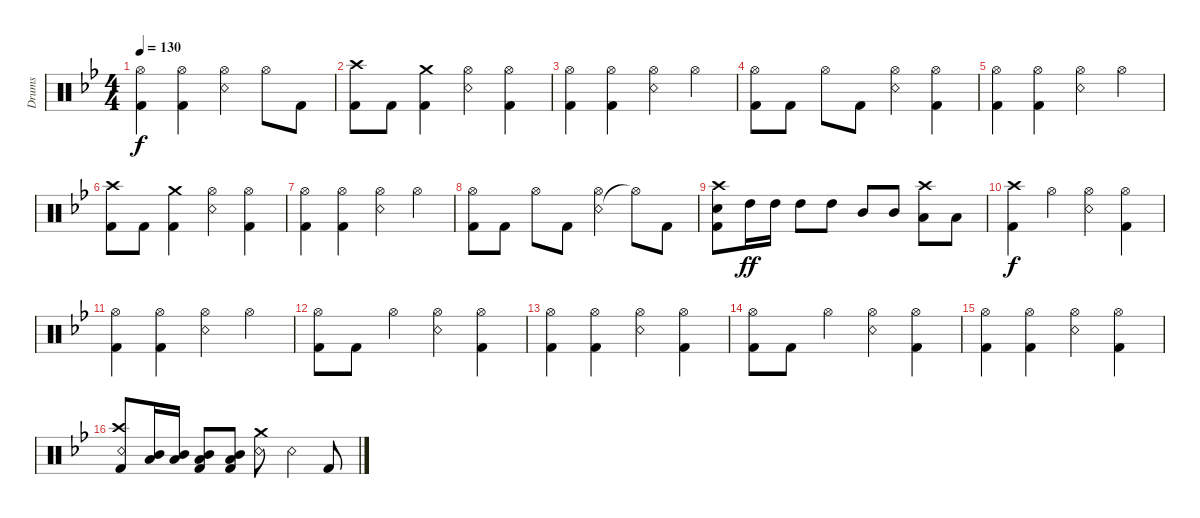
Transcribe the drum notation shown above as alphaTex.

\bracketExtendMode groupsimilarinstruments
\otherSystemsTrackNameOrientation horizontal
\track ("Schlagzeug" "Drums") {instrument percussion}
\staff {score}
\articulation defaults
\ts (4 4)
\tempo 130
\clef neutral
\ks bb
("Kick (hit) 2"{acc forcenatural} "Hi-Hat (open)"{acc forcenatural}).4{dy f beam Down} ("Kick (hit) 2"{acc forcenatural} "Hi-Hat (open)"{acc forcenatural}).4{beam Down} ("Snare (rim shot)"{acc forcenatural} "Hi-Hat (open)"{acc forcenatural}).4{beam Down} "Hi-Hat (open)"{acc forcenatural}.8{beam Down} "Kick (hit) 2"{acc forcenatural}.8{beam Down} |
("Kick (hit) 2"{acc forcenatural} "Crash high (hit)"{acc forcenatural}).8{beam Down} "Kick (hit) 2"{acc forcenatural}.8{beam Down} ("Kick (hit) 2"{acc forcenatural} "Crash medium (hit)"{acc forcenatural}).4{beam Down} ("Snare (rim shot)"{acc forcenatural} "Hi-Hat (open)"{acc forcenatural}).4{beam Down} ("Kick (hit) 2"{acc forcenatural} "Hi-Hat (open)"{acc forcenatural}).4{beam Down} |
("Kick (hit) 2"{acc forcenatural} "Hi-Hat (open)"{acc forcenatural}).4{beam Down} ("Kick (hit) 2"{acc forcenatural} "Hi-Hat (open)"{acc forcenatural}).4{beam Down} ("Snare (rim shot)"{acc forcenatural} "Hi-Hat (open)"{acc forcenatural}).4{beam Down} "Hi-Hat (open)"{acc forcenatural}.4{beam Down} |
("Kick (hit) 2"{acc forcenatural} "Hi-Hat (open)"{acc forcenatural}).8{beam Down} "Kick (hit) 2"{acc forcenatural}.8{beam Down} "Hi-Hat (open)"{acc forcenatural}.8{beam Down} "Kick (hit) 2"{acc forcenatural}.8{beam Down} ("Snare (rim shot)"{acc forcenatural} "Hi-Hat (open)"{acc forcenatural}).4{beam Down} ("Kick (hit) 2"{acc forcenatural} "Hi-Hat (open)"{acc forcenatural}).4{beam Down} |
("Kick (hit) 2"{acc forcenatural} "Hi-Hat (open)"{acc forcenatural}).4{beam Down} ("Kick (hit) 2"{acc forcenatural} "Hi-Hat (open)"{acc forcenatural}).4{beam Down} ("Snare (rim shot)"{acc forcenatural} "Hi-Hat (open)"{acc forcenatural}).4{beam Down} "Hi-Hat (open)"{acc forcenatural}.4{beam Down} |
("Kick (hit) 2"{acc forcenatural} "Crash high (hit)"{acc forcenatural}).8{beam Down} "Kick (hit) 2"{acc forcenatural}.8{beam Down} ("Kick (hit) 2"{acc forcenatural} "Crash medium (hit)"{acc forcenatural}).4{beam Down} ("Snare (rim shot)"{acc forcenatural} "Hi-Hat (open)"{acc forcenatural}).4{beam Down} ("Kick (hit) 2"{acc forcenatural} "Hi-Hat (open)"{acc forcenatural}).4{beam Down} |
("Kick (hit) 2"{acc forcenatural} "Hi-Hat (open)"{acc forcenatural}).4{beam Down} ("Kick (hit) 2"{acc forcenatural} "Hi-Hat (open)"{acc forcenatural}).4{beam Down} ("Snare (rim shot)"{acc forcenatural} "Hi-Hat (open)"{acc forcenatural}).4{beam Down} "Hi-Hat (open)"{acc forcenatural}.4{beam Down} |
("Kick (hit) 2"{acc forcenatural} "Hi-Hat (open)"{acc forcenatural}).8{beam Down} "Kick (hit) 2"{acc forcenatural}.8{beam Down} "Hi-Hat (open)"{acc forcenatural}.8{beam Down} "Kick (hit) 2"{acc forcenatural}.8{beam Down} ("Snare (rim shot)"{acc forcenatural} "Hi-Hat (open)"{acc forcenatural}).4{beam Down} "Hi-Hat (open)"{t acc forcenatural}.8{beam Down} "Kick (hit) 2"{acc forcenatural}.8{beam Down} |
("Kick (hit) 2"{acc forcenatural} "Snare (hit) 2"{acc forcenatural} "Crash high (hit)"{acc forcenatural}).8{beam Down} "High Tom (hit)"{acc forcenatural}.16{dy ff beam Down} "High Tom (hit)"{acc forcenatural}.16{beam Down} "High Tom (hit)"{acc forcenatural}.8{beam Down} "High Tom (hit)"{acc forcenatural}.8{beam Down} "Mid Tom (hit)"{acc forcenatural}.8{beam Up} "Mid Tom (hit)"{acc forcenatural}.8{beam Up} ("Low Tom (hit)"{acc forcenatural} "Crash high (hit)"{acc forcenatural}).8{beam Down} "Low Tom (hit)"{acc forcenatural}.8{beam Down} |
("Crash high (hit)"{acc forcenatural} "Kick (hit) 2"{acc forcenatural}).4{dy f beam Down} "Hi-Hat (open)"{acc forcenatural}.4{beam Down} ("Hi-Hat (open)"{acc forcenatural} "Snare (rim shot)"{acc forcenatural}).4{beam Down} ("Hi-Hat (open)"{acc forcenatural} "Kick (hit) 2"{acc forcenatural}).4{beam Down} |
("Hi-Hat (open)"{acc forcenatural} "Kick (hit) 2"{acc forcenatural}).4{beam Down} ("Hi-Hat (open)"{acc forcenatural} "Kick (hit) 2"{acc forcenatural}).4{beam Down} ("Hi-Hat (open)"{acc forcenatural} "Snare (rim shot)"{acc forcenatural}).4{beam Down} "Hi-Hat (open)"{acc forcenatural}.4{beam Down} |
("Kick (hit) 2"{acc forcenatural} "Hi-Hat (open)"{acc forcenatural}).8{beam Down} "Kick (hit) 2"{acc forcenatural}.8{beam Down} "Hi-Hat (open)"{acc forcenatural}.4{beam Down} ("Snare (rim shot)"{acc forcenatural} "Hi-Hat (open)"{acc forcenatural}).4{beam Down} ("Hi-Hat (open)"{acc forcenatural} "Kick (hit) 2"{acc forcenatural}).4{beam Down} |
("Kick (hit) 2"{acc forcenatural} "Hi-Hat (open)"{acc forcenatural}).4{beam Down} ("Kick (hit) 2"{acc forcenatural} "Hi-Hat (open)"{acc forcenatural}).4{beam Down} ("Snare (rim shot)"{acc forcenatural} "Hi-Hat (open)"{acc forcenatural}).4{beam Down} ("Kick (hit) 2"{acc forcenatural} "Hi-Hat (open)"{acc forcenatural}).4{beam Down} |
("Kick (hit) 2"{acc forcenatural} "Hi-Hat (open)"{acc forcenatural}).8{beam Down} "Kick (hit) 2"{acc forcenatural}.8{beam Down} "Hi-Hat (open)"{acc forcenatural}.4{beam Down} ("Snare (rim shot)"{acc forcenatural} "Hi-Hat (open)"{acc forcenatural}).4{beam Down} ("Hi-Hat (open)"{acc forcenatural} "Kick (hit) 2"{acc forcenatural}).4{beam Down} |
("Kick (hit) 2"{acc forcenatural} "Hi-Hat (open)"{acc forcenatural}).4{beam Down} ("Kick (hit) 2"{acc forcenatural} "Hi-Hat (open)"{acc forcenatural}).4{beam Down} ("Snare (rim shot)"{acc forcenatural} "Hi-Hat (open)"{acc forcenatural}).4{beam Down} ("Kick (hit) 2"{acc forcenatural} "Hi-Hat (open)"{acc forcenatural}).4{beam Down} |
("Kick (hit) 2"{acc forcenatural} "Snare (rim shot)"{acc forcenatural} "Crash high (hit)"{acc forcenatural}).8{beam Up} ("Low Tom (hit)"{acc forcenatural} "Mid Tom (hit)"{acc forcenatural}).16{beam Up} ("Low Tom (hit)"{acc forcenatural} "Mid Tom (hit)"{acc forcenatural}).16{beam Up} ("Low Tom (hit)"{acc forcenatural} "Kick (hit) 2"{acc forcenatural} "Mid Tom (hit)"{acc forcenatural}).8{beam Up} ("Low Tom (hit)"{acc forcenatural} "Kick (hit) 2"{acc forcenatural} "Mid Tom (hit)"{acc forcenatural}).8{beam Up} ("Snare (rim shot)"{acc forcenatural} "Crash medium (hit)"{acc forcenatural}).8{beam Down} "Snare (rim shot)"{acc forcenatural}.4{beam Down} "Kick (hit) 2"{acc forcenatural}.8{beam Up}
